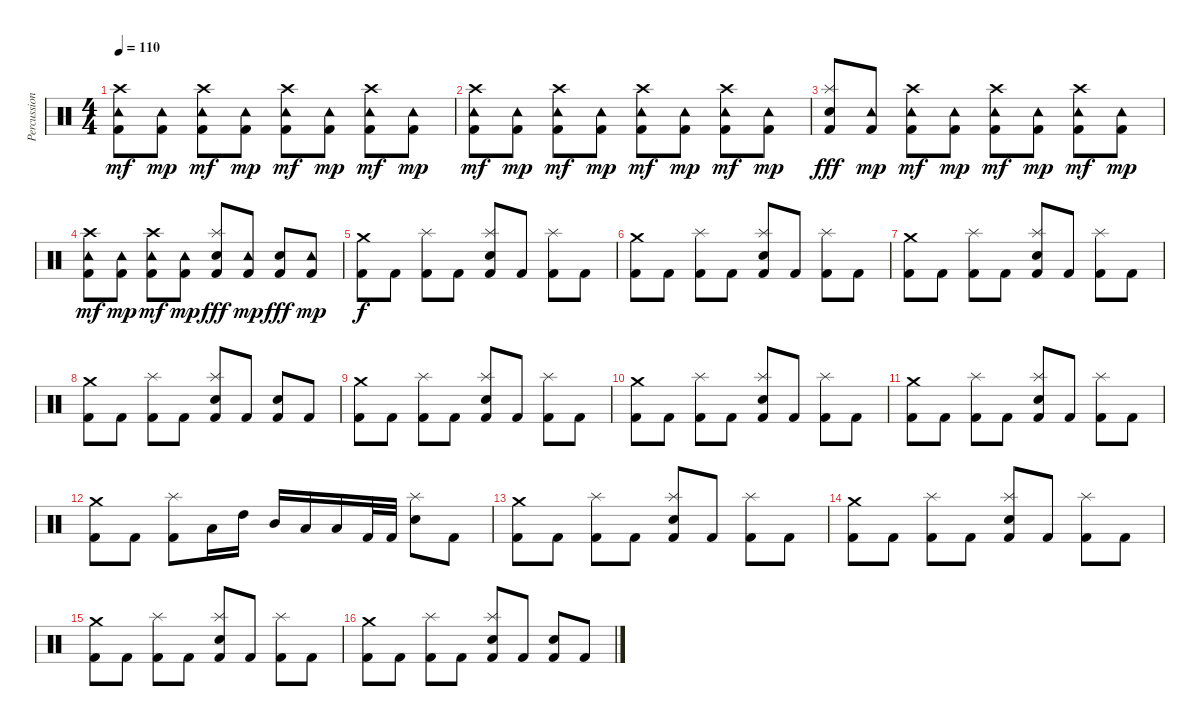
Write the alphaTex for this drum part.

\track ("Percussion" "Percussion") {instrument percussion}
\staff {score}
\articulation defaults
\ts (4 4)
\tempo 110
\clef neutral
\ks c
("Crash high (hit)" "Tambourine (hit)" "Kick (hit) 2").8{dy mf} ("Tambourine (hit)" "Kick (hit) 2").8{dy mp} ("Crash high (hit)" "Tambourine (hit)" "Kick (hit) 2").8{dy mf} ("Tambourine (hit)" "Kick (hit) 2").8{dy mp} ("Crash high (hit)" "Tambourine (hit)" "Kick (hit) 2").8{dy mf} ("Tambourine (hit)" "Kick (hit) 2").8{dy mp} ("Crash high (hit)" "Tambourine (hit)" "Kick (hit) 2").8{dy mf} ("Tambourine (hit)" "Kick (hit) 2").8{dy mp} |
("Crash high (hit)" "Tambourine (hit)" "Kick (hit) 2").8{dy mf} ("Tambourine (hit)" "Kick (hit) 2").8{dy mp} ("Crash high (hit)" "Tambourine (hit)" "Kick (hit) 2").8{dy mf} ("Tambourine (hit)" "Kick (hit) 2").8{dy mp} ("Crash high (hit)" "Tambourine (hit)" "Kick (hit) 2").8{dy mf} ("Tambourine (hit)" "Kick (hit) 2").8{dy mp} ("Crash high (hit)" "Tambourine (hit)" "Kick (hit) 2").8{dy mf} ("Tambourine (hit)" "Kick (hit) 2").8{dy mp} |
("Splash (hit)" "Snare (hit) 2" "Kick (hit) 2").8{dy fff} ("Tambourine (hit)" "Kick (hit) 2").8{dy mp} ("Crash high (hit)" "Tambourine (hit)" "Kick (hit) 2").8{dy mf} ("Tambourine (hit)" "Kick (hit) 2").8{dy mp} ("Crash high (hit)" "Tambourine (hit)" "Kick (hit) 2").8{dy mf} ("Tambourine (hit)" "Kick (hit) 2").8{dy mp} ("Crash high (hit)" "Tambourine (hit)" "Kick (hit) 2").8{dy mf} ("Tambourine (hit)" "Kick (hit) 2").8{dy mp} |
("Crash high (hit)" "Tambourine (hit)" "Kick (hit) 2").8{dy mf} ("Tambourine (hit)" "Kick (hit) 2").8{dy mp} ("Crash high (hit)" "Tambourine (hit)" "Kick (hit) 2").8{dy mf} ("Tambourine (hit)" "Kick (hit) 2").8{dy mp} ("Splash (hit)" "Snare (hit) 2" "Kick (hit) 2").8{dy fff} ("Tambourine (hit)" "Kick (hit) 2").8{dy mp} ("Snare (hit) 2" "Kick (hit) 2").8{dy fff} ("Tambourine (hit)" "Kick (hit) 2").8{dy mp} |
("Crash medium (hit)" "Kick (hit) 2").8{dy f} "Kick (hit) 2".8 ("Splash (hit)" "Kick (hit) 2").8 "Kick (hit) 2".8 ("Splash (hit)" "Snare (hit) 2" "Kick (hit) 2").8 "Kick (hit) 2".8 ("Splash (hit)" "Kick (hit) 2").8 "Kick (hit) 2".8 |
("Crash medium (hit)" "Kick (hit) 2").8 "Kick (hit) 2".8 ("Splash (hit)" "Kick (hit) 2").8 "Kick (hit) 2".8 ("Splash (hit)" "Snare (hit) 2" "Kick (hit) 2").8 "Kick (hit) 2".8 ("Splash (hit)" "Kick (hit) 2").8 "Kick (hit) 2".8 |
("Crash medium (hit)" "Kick (hit) 2").8 "Kick (hit) 2".8 ("Splash (hit)" "Kick (hit) 2").8 "Kick (hit) 2".8 ("Splash (hit)" "Snare (hit) 2" "Kick (hit) 2").8 "Kick (hit) 2".8 ("Splash (hit)" "Kick (hit) 2").8 "Kick (hit) 2".8 |
("Crash medium (hit)" "Kick (hit) 2").8 "Kick (hit) 2".8 ("Splash (hit)" "Kick (hit) 2").8 "Kick (hit) 2".8 ("Splash (hit)" "Snare (hit) 2" "Kick (hit) 2").8 "Kick (hit) 2".8 ("Snare (hit) 2" "Kick (hit) 2").8 "Kick (hit) 2".8 |
("Crash medium (hit)" "Kick (hit) 2").8 "Kick (hit) 2".8 ("Splash (hit)" "Kick (hit) 2").8 "Kick (hit) 2".8 ("Splash (hit)" "Snare (hit) 2" "Kick (hit) 2").8 "Kick (hit) 2".8 ("Splash (hit)" "Kick (hit) 2").8 "Kick (hit) 2".8 |
("Crash medium (hit)" "Kick (hit) 2").8 "Kick (hit) 2".8 ("Splash (hit)" "Kick (hit) 2").8 "Kick (hit) 2".8 ("Splash (hit)" "Snare (hit) 2" "Kick (hit) 2").8 "Kick (hit) 2".8 ("Splash (hit)" "Kick (hit) 2").8 "Kick (hit) 2".8 |
("Crash medium (hit)" "Kick (hit) 2").8 "Kick (hit) 2".8 ("Splash (hit)" "Kick (hit) 2").8 "Kick (hit) 2".8 ("Splash (hit)" "Snare (hit) 2" "Kick (hit) 2").8 "Kick (hit) 2".8 ("Splash (hit)" "Kick (hit) 2").8 "Kick (hit) 2".8 |
("Crash medium (hit)" "Kick (hit) 2").8 "Kick (hit) 2".8 ("Splash (hit)" "Kick (hit) 2").8 "Low Tom (hit)".16 "High Tom (hit)".16 "Mid Tom (hit)".16 "Low Tom (hit)".16 "Low Floor Tom (hit)".16 "Kick (hit) 2".32 "Kick (hit) 2".32 ("Splash (hit)" "Snare (hit) 2").8 "Kick (hit) 2".8 |
("Crash medium (hit)" "Kick (hit) 2").8 "Kick (hit) 2".8 ("Splash (hit)" "Kick (hit) 2").8 "Kick (hit) 2".8 ("Splash (hit)" "Snare (hit) 2" "Kick (hit) 2").8 "Kick (hit) 2".8 ("Splash (hit)" "Kick (hit) 2").8 "Kick (hit) 2".8 |
("Crash medium (hit)" "Kick (hit) 2").8 "Kick (hit) 2".8 ("Splash (hit)" "Kick (hit) 2").8 "Kick (hit) 2".8 ("Splash (hit)" "Snare (hit) 2" "Kick (hit) 2").8 "Kick (hit) 2".8 ("Splash (hit)" "Kick (hit) 2").8 "Kick (hit) 2".8 |
("Crash medium (hit)" "Kick (hit) 2").8 "Kick (hit) 2".8 ("Splash (hit)" "Kick (hit) 2").8 "Kick (hit) 2".8 ("Splash (hit)" "Snare (hit) 2" "Kick (hit) 2").8 "Kick (hit) 2".8 ("Splash (hit)" "Kick (hit) 2").8 "Kick (hit) 2".8 |
("Crash medium (hit)" "Kick (hit) 2").8 "Kick (hit) 2".8 ("Splash (hit)" "Kick (hit) 2").8 "Kick (hit) 2".8 ("Splash (hit)" "Snare (hit) 2" "Kick (hit) 2").8 "Kick (hit) 2".8 ("Snare (hit) 2" "Kick (hit) 2").8 "Kick (hit) 2".8
